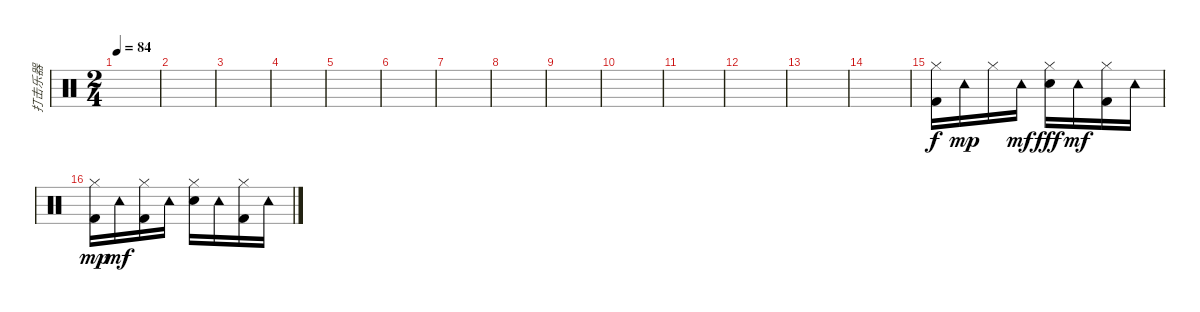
\track ("打击乐器" "打击乐器") {instrument percussion}
\staff {score}
\articulation defaults
\ts (2 4)
\tempo 84
\clef neutral
\ks c
|
|
|
|
|
|
|
|
|
|
|
|
|
|
("Hi-Hat (closed)" "Kick (hit) 2").16 "Tambourine (hit)".16{dy mp} "Hi-Hat (closed)".16 "Tambourine (hit)".16{dy mf} ("Hi-Hat (closed)" "Snare (hit) 2").16{dy fff} "Tambourine (hit)".16{dy mf} ("Hi-Hat (closed)" "Kick (hit) 2").16 "Tambourine (hit)".16 |
("Hi-Hat (closed)" "Kick (hit) 2").16{dy mp} "Tambourine (hit)".16{dy mf} ("Hi-Hat (closed)" "Kick (hit) 2").16 "Tambourine (hit)".16 ("Hi-Hat (closed)" "Snare (hit) 2").16 "Tambourine (hit)".16 ("Hi-Hat (closed)" "Kick (hit) 2").16 "Tambourine (hit)".16
